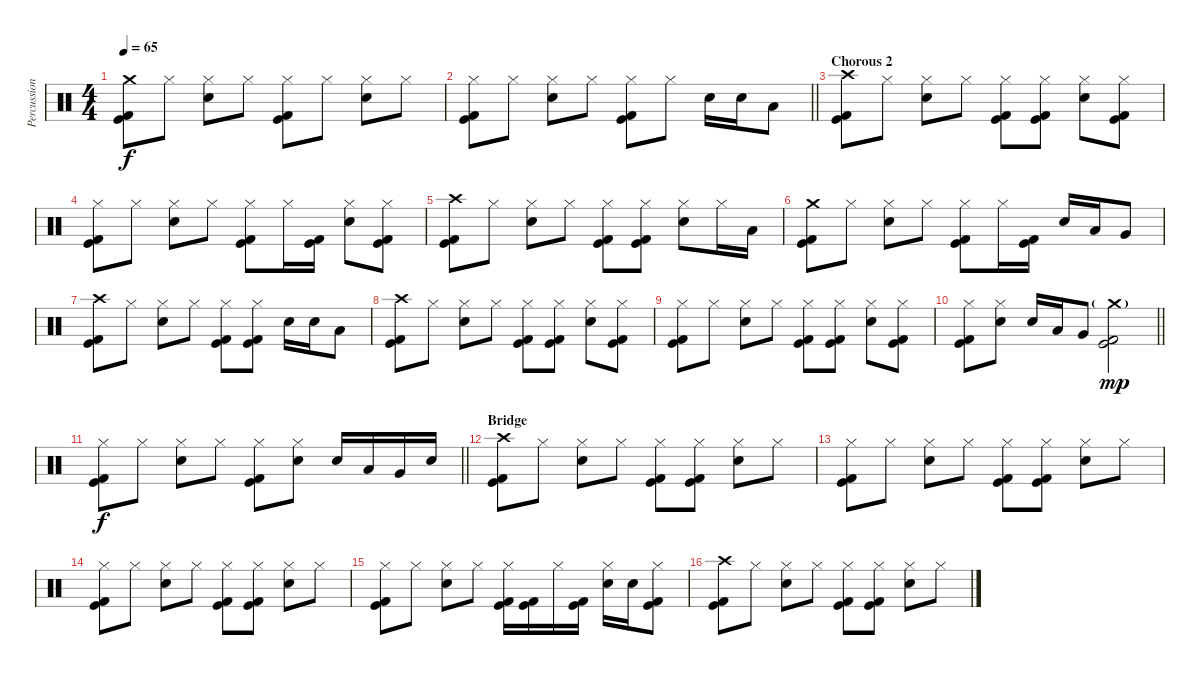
\track ("Percussion" "Percussion") {instrument percussion}
\staff {score}
\articulation defaults
\ts (4 4)
\tempo 65
\clef neutral
\ks c
("Crash medium (hit)" "Kick (hit)" "Kick (hit) 2").8{dy f} "Hi-Hat (closed)".8 ("Hi-Hat (closed)" "Electric Snare (hit)").8 "Hi-Hat (closed)".8 ("Hi-Hat (closed)" "Kick (hit)" "Kick (hit) 2").8 "Hi-Hat (closed)".8 ("Hi-Hat (closed)" "Electric Snare (hit)").8 "Hi-Hat (closed)".8 |
\barLineRight lightlight
("Hi-Hat (closed)" "Kick (hit)" "Kick (hit) 2").8 "Hi-Hat (closed)".8 ("Hi-Hat (closed)" "Electric Snare (hit)").8 "Hi-Hat (closed)".8 ("Hi-Hat (closed)" "Kick (hit)" "Kick (hit) 2").8 "Hi-Hat (closed)".8 "Electric Snare (hit)".16 "Electric Snare (hit)".16 "Low Tom (hit)".8 |
\section ("" "Chorous 2")
("Crash high (hit)" "Kick (hit)" "Kick (hit) 2").8 "Hi-Hat (closed)".8 ("Hi-Hat (closed)" "Electric Snare (hit)").8 "Hi-Hat (closed)".8 ("Hi-Hat (closed)" "Kick (hit)" "Kick (hit) 2").8 ("Hi-Hat (closed)" "Kick (hit)" "Kick (hit) 2").8 ("Hi-Hat (closed)" "Electric Snare (hit)").8 ("Hi-Hat (closed)" "Kick (hit)" "Kick (hit) 2").8 |
("Hi-Hat (closed)" "Kick (hit)" "Kick (hit) 2").8 "Hi-Hat (closed)".8 ("Hi-Hat (closed)" "Electric Snare (hit)").8 "Hi-Hat (closed)".8 ("Hi-Hat (closed)" "Kick (hit)" "Kick (hit) 2").8 "Hi-Hat (closed)".16 ("Kick (hit)" "Kick (hit) 2").16 ("Hi-Hat (closed)" "Electric Snare (hit)").8 ("Hi-Hat (closed)" "Kick (hit)" "Kick (hit) 2").8 |
("Crash high (hit)" "Kick (hit)" "Kick (hit) 2").8 "Hi-Hat (closed)".8 ("Hi-Hat (closed)" "Electric Snare (hit)").8 "Hi-Hat (closed)".8 ("Hi-Hat (closed)" "Kick (hit)" "Kick (hit) 2").8 ("Hi-Hat (closed)" "Kick (hit)" "Kick (hit) 2").8 ("Hi-Hat (closed)" "Electric Snare (hit)").8 "Hi-Hat (closed)".16 "Low Tom (hit)".16 |
("Crash medium (hit)" "Kick (hit)" "Kick (hit) 2").8 "Hi-Hat (closed)".8 ("Hi-Hat (closed)" "Electric Snare (hit)").8 "Hi-Hat (closed)".8 ("Hi-Hat (closed)" "Kick (hit)" "Kick (hit) 2").8 "Hi-Hat (closed)".16 ("Kick (hit)" "Kick (hit) 2").16 "Electric Snare (hit)".16 "Low Tom (hit)".16 "Very Low Tom (hit)".8 |
("Crash high (hit)" "Kick (hit)" "Kick (hit) 2").8 "Hi-Hat (closed)".8 ("Hi-Hat (closed)" "Electric Snare (hit)").8 "Hi-Hat (closed)".8 ("Hi-Hat (closed)" "Kick (hit)" "Kick (hit) 2").8 ("Hi-Hat (closed)" "Kick (hit)" "Kick (hit) 2").8 "Electric Snare (hit)".16 "Electric Snare (hit)".16 "Low Tom (hit)".8 |
("Crash high (hit)" "Kick (hit)" "Kick (hit) 2").8 "Hi-Hat (closed)".8 ("Hi-Hat (closed)" "Electric Snare (hit)").8 "Hi-Hat (closed)".8 ("Hi-Hat (closed)" "Kick (hit)" "Kick (hit) 2").8 ("Hi-Hat (closed)" "Kick (hit)" "Kick (hit) 2").8 ("Hi-Hat (closed)" "Electric Snare (hit)").8 ("Hi-Hat (closed)" "Kick (hit)" "Kick (hit) 2").8 |
("Hi-Hat (closed)" "Kick (hit)" "Kick (hit) 2").8 "Hi-Hat (closed)".8 ("Hi-Hat (closed)" "Electric Snare (hit)").8 "Hi-Hat (closed)".8 ("Hi-Hat (closed)" "Kick (hit)" "Kick (hit) 2").8 ("Hi-Hat (closed)" "Kick (hit)" "Kick (hit) 2").8 ("Hi-Hat (closed)" "Electric Snare (hit)").8 ("Hi-Hat (closed)" "Kick (hit)" "Kick (hit) 2").8 |
\barLineRight lightlight
("Hi-Hat (closed)" "Kick (hit)" "Kick (hit) 2").8 ("Hi-Hat (closed)" "Electric Snare (hit)").8 "Electric Snare (hit)".16 "Low Tom (hit)".16 "Very Low Tom (hit)".8 ("Crash medium (hit)"{g} "Kick (hit)" "Kick (hit) 2").2{dy mp} |
\section ("" "")
\barLineRight lightlight
("Hi-Hat (closed)" "Kick (hit)" "Kick (hit) 2").8{dy f} "Hi-Hat (closed)".8 ("Hi-Hat (closed)" "Electric Snare (hit)").8 "Hi-Hat (closed)".8 ("Hi-Hat (closed)" "Kick (hit)" "Kick (hit) 2").8 ("Hi-Hat (closed)" "Electric Snare (hit)").8 "Electric Snare (hit)".16 "Low Tom (hit)".16 "Very Low Tom (hit)".16 "Electric Snare (hit)".16 |
\section ("" "Bridge")
("Crash high (hit)" "Kick (hit)" "Kick (hit) 2").8 "Hi-Hat (closed)".8 ("Hi-Hat (closed)" "Electric Snare (hit)").8 "Hi-Hat (closed)".8 ("Hi-Hat (closed)" "Kick (hit)" "Kick (hit) 2").8 ("Hi-Hat (closed)" "Kick (hit)" "Kick (hit) 2").8 ("Hi-Hat (closed)" "Electric Snare (hit)").8 "Hi-Hat (closed)".8 |
("Hi-Hat (closed)" "Kick (hit)" "Kick (hit) 2").8 "Hi-Hat (closed)".8 ("Hi-Hat (closed)" "Electric Snare (hit)").8 "Hi-Hat (closed)".8 ("Hi-Hat (closed)" "Kick (hit)" "Kick (hit) 2").8 ("Hi-Hat (closed)" "Kick (hit)" "Kick (hit) 2").8 ("Hi-Hat (closed)" "Electric Snare (hit)").8 "Hi-Hat (closed)".8 |
("Hi-Hat (closed)" "Kick (hit)" "Kick (hit) 2").8 "Hi-Hat (closed)".8 ("Hi-Hat (closed)" "Electric Snare (hit)").8 "Hi-Hat (closed)".8 ("Hi-Hat (closed)" "Kick (hit)" "Kick (hit) 2").8 ("Hi-Hat (closed)" "Kick (hit)" "Kick (hit) 2").8 ("Hi-Hat (closed)" "Electric Snare (hit)").8 "Hi-Hat (closed)".8 |
("Hi-Hat (closed)" "Kick (hit)" "Kick (hit) 2").8 "Hi-Hat (closed)".8 ("Hi-Hat (closed)" "Electric Snare (hit)").8 "Hi-Hat (closed)".8 ("Hi-Hat (closed)" "Kick (hit)" "Kick (hit) 2").16 ("Kick (hit)" "Kick (hit) 2").16 "Hi-Hat (closed)".16 ("Kick (hit)" "Kick (hit) 2").16 ("Hi-Hat (closed)" "Electric Snare (hit)").16 "Electric Snare (hit)".16 ("Hi-Hat (closed)" "Kick (hit)" "Kick (hit) 2").8 |
("Crash high (hit)" "Kick (hit)" "Kick (hit) 2").8 "Hi-Hat (closed)".8 ("Hi-Hat (closed)" "Electric Snare (hit)").8 "Hi-Hat (closed)".8 ("Hi-Hat (closed)" "Kick (hit)" "Kick (hit) 2").8 ("Hi-Hat (closed)" "Kick (hit)" "Kick (hit) 2").8 ("Hi-Hat (closed)" "Electric Snare (hit)").8 "Hi-Hat (closed)".8
